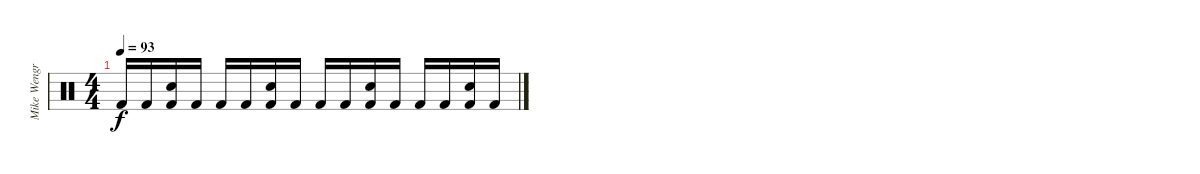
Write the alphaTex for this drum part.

\track ("Mike Wengren" "Mike Wengr") {instrument percussion}
\staff {score}
\articulation defaults
\ts (4 4)
\tempo 93
\clef neutral
\ks c "Kick (hit) 2".16{dy f} "Kick (hit) 2".16
("Electric Snare (hit)" "Kick (hit) 2").16 "Kick (hit) 2".16 "Kick (hit) 2".16 "Kick (hit) 2".16 ("Electric Snare (hit)" "Kick (hit) 2").16 "Kick (hit) 2".16 "Kick (hit) 2".16 "Kick (hit) 2".16 ("Electric Snare (hit)" "Kick (hit) 2").16 "Kick (hit) 2".16 "Kick (hit) 2".16 "Kick (hit) 2".16 ("Electric Snare (hit)" "Kick (hit) 2").16 "Kick (hit) 2".16
